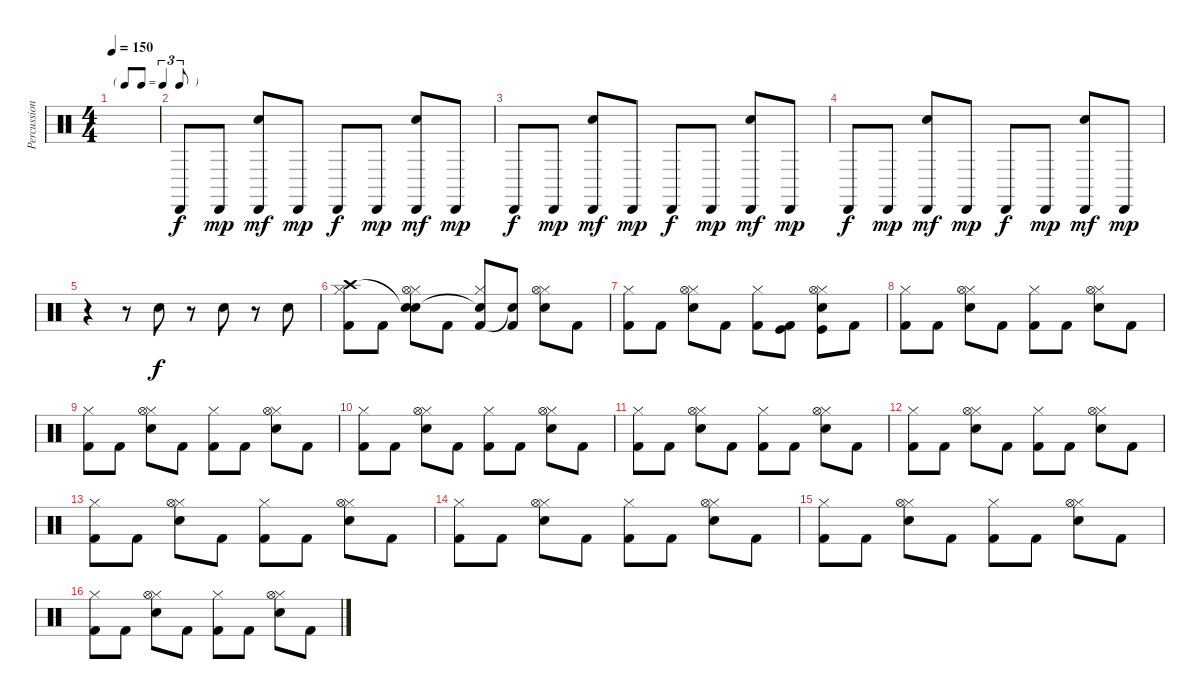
\track ("Percussion" "Percussion") {instrument percussion}
\staff {score}
\articulation defaults
\ts (4 4)
\tf triplet8th
\tempo 150
\clef neutral
\ks c
|
"Cabasa (hit)".8 "Cabasa (hit)".8{dy mp} ("Cabasa (hit)" "Hand Clap (hit)").8{dy mf} "Cabasa (hit)".8{dy mp} "Cabasa (hit)".8{dy f} "Cabasa (hit)".8{dy mp} ("Cabasa (hit)" "Hand Clap (hit)").8{dy mf} "Cabasa (hit)".8{dy mp} |
"Cabasa (hit)".8{dy f} "Cabasa (hit)".8{dy mp} ("Cabasa (hit)" "Hand Clap (hit)").8{dy mf} "Cabasa (hit)".8{dy mp} "Cabasa (hit)".8{dy f} "Cabasa (hit)".8{dy mp} ("Cabasa (hit)" "Hand Clap (hit)").8{dy mf} "Cabasa (hit)".8{dy mp} |
"Cabasa (hit)".8{dy f} "Cabasa (hit)".8{dy mp} ("Cabasa (hit)" "Hand Clap (hit)").8{dy mf} "Cabasa (hit)".8{dy mp} "Cabasa (hit)".8{dy f} "Cabasa (hit)".8{dy mp} ("Cabasa (hit)" "Hand Clap (hit)").8{dy mf} "Cabasa (hit)".8{dy mp} |
r.4 r.8 "Snare (hit) 2".8{dy f} r.8 "Snare (hit) 2".8 r.8 "Snare (hit) 2".8 |
("Hi-Hat (closed)" "Kick (hit) 2" "Crash high (hit)").8 "Kick (hit) 2".8 ("Hi-Hat (closed)" "Electric Snare (hit)" "Snare (hit)"{t} "Hi-Hat (open)").8 "Kick (hit) 2".8 ("Hi-Hat (closed)" "Kick (hit) 2" "Snare (hit)"{t}).8 ("Kick (hit) 2" "Snare (hit)"{t}).8 ("Hi-Hat (closed)" "Electric Snare (hit)" "Hi-Hat (open)").8 "Kick (hit) 2".8 |
("Hi-Hat (closed)" "Kick (hit) 2").8 "Kick (hit) 2".8 ("Hi-Hat (closed)" "Electric Snare (hit)" "Hi-Hat (open)").8 "Kick (hit) 2".8 ("Hi-Hat (closed)" "Kick (hit) 2").8 ("Kick (hit) 2" "Kick (hit)").8 ("Hi-Hat (closed)" "Electric Snare (hit)" "Hi-Hat (open)" "Kick (hit)").8 "Kick (hit) 2".8 |
("Hi-Hat (closed)" "Kick (hit) 2").8 "Kick (hit) 2".8 ("Hi-Hat (closed)" "Electric Snare (hit)" "Hi-Hat (open)").8 "Kick (hit) 2".8 ("Hi-Hat (closed)" "Kick (hit) 2").8 "Kick (hit) 2".8 ("Hi-Hat (closed)" "Electric Snare (hit)" "Hi-Hat (open)").8 "Kick (hit) 2".8 |
("Hi-Hat (closed)" "Kick (hit) 2").8 "Kick (hit) 2".8 ("Hi-Hat (closed)" "Electric Snare (hit)" "Hi-Hat (open)").8 "Kick (hit) 2".8 ("Hi-Hat (closed)" "Kick (hit) 2").8 "Kick (hit) 2".8 ("Hi-Hat (closed)" "Electric Snare (hit)" "Hi-Hat (open)").8 "Kick (hit) 2".8 |
("Hi-Hat (closed)" "Kick (hit) 2").8 "Kick (hit) 2".8 ("Hi-Hat (closed)" "Electric Snare (hit)" "Hi-Hat (open)").8 "Kick (hit) 2".8 ("Hi-Hat (closed)" "Kick (hit) 2").8 "Kick (hit) 2".8 ("Hi-Hat (closed)" "Electric Snare (hit)" "Hi-Hat (open)").8 "Kick (hit) 2".8 |
("Hi-Hat (closed)" "Kick (hit) 2").8 "Kick (hit) 2".8 ("Hi-Hat (closed)" "Electric Snare (hit)" "Hi-Hat (open)").8 "Kick (hit) 2".8 ("Hi-Hat (closed)" "Kick (hit) 2").8 "Kick (hit) 2".8 ("Hi-Hat (closed)" "Electric Snare (hit)" "Hi-Hat (open)").8 "Kick (hit) 2".8 |
("Hi-Hat (closed)" "Kick (hit) 2").8 "Kick (hit) 2".8 ("Hi-Hat (closed)" "Electric Snare (hit)" "Hi-Hat (open)").8 "Kick (hit) 2".8 ("Hi-Hat (closed)" "Kick (hit) 2").8 "Kick (hit) 2".8 ("Hi-Hat (closed)" "Electric Snare (hit)" "Hi-Hat (open)").8 "Kick (hit) 2".8 |
("Hi-Hat (closed)" "Kick (hit) 2").8 "Kick (hit) 2".8 ("Hi-Hat (closed)" "Electric Snare (hit)" "Hi-Hat (open)").8 "Kick (hit) 2".8 ("Hi-Hat (closed)" "Kick (hit) 2").8 "Kick (hit) 2".8 ("Hi-Hat (closed)" "Electric Snare (hit)" "Hi-Hat (open)").8 "Kick (hit) 2".8 |
("Hi-Hat (closed)" "Kick (hit) 2").8 "Kick (hit) 2".8 ("Hi-Hat (closed)" "Electric Snare (hit)" "Hi-Hat (open)").8 "Kick (hit) 2".8 ("Hi-Hat (closed)" "Kick (hit) 2").8 "Kick (hit) 2".8 ("Hi-Hat (closed)" "Electric Snare (hit)" "Hi-Hat (open)").8 "Kick (hit) 2".8 |
("Hi-Hat (closed)" "Kick (hit) 2").8 "Kick (hit) 2".8 ("Hi-Hat (closed)" "Electric Snare (hit)" "Hi-Hat (open)").8 "Kick (hit) 2".8 ("Hi-Hat (closed)" "Kick (hit) 2").8 "Kick (hit) 2".8 ("Hi-Hat (closed)" "Electric Snare (hit)" "Hi-Hat (open)").8 "Kick (hit) 2".8 |
("Hi-Hat (closed)" "Kick (hit) 2").8 "Kick (hit) 2".8 ("Hi-Hat (closed)" "Electric Snare (hit)" "Hi-Hat (open)").8 "Kick (hit) 2".8 ("Hi-Hat (closed)" "Kick (hit) 2").8 "Kick (hit) 2".8 ("Hi-Hat (closed)" "Electric Snare (hit)" "Hi-Hat (open)").8 "Kick (hit) 2".8
